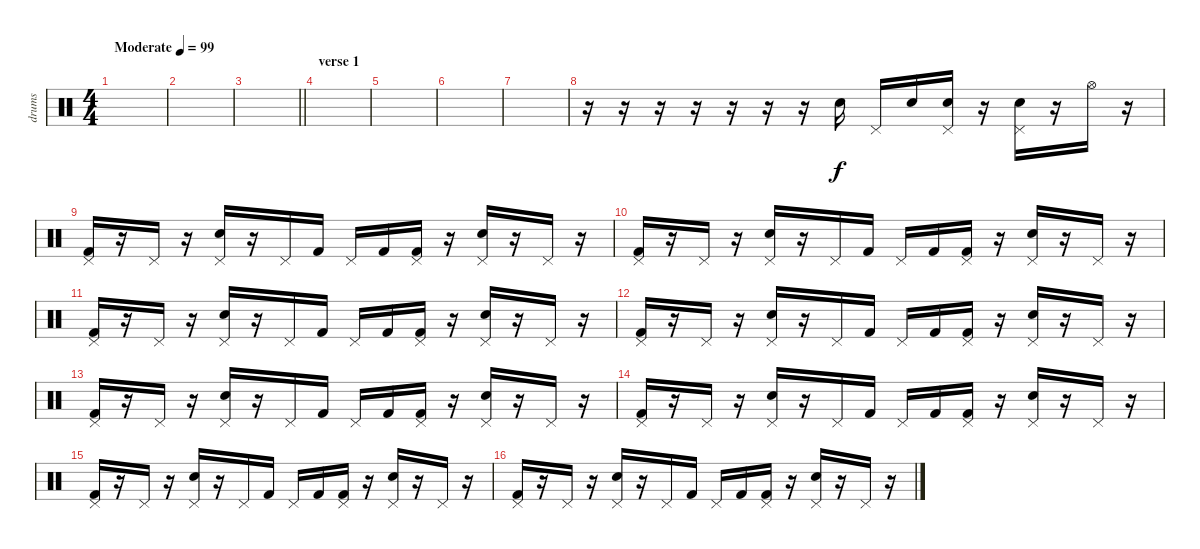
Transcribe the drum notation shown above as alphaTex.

\track ("drums" "drums") {instrument percussion}
\staff {score}
\articulation defaults
\ts (4 4)
\tempo (99 "Moderate")
\clef neutral
\ks c
|
|
\barLineRight lightlight
|
\section ("" "verse 1")
|
|
|
|
r.16 r.16 r.16 r.16 r.16 r.16 r.16 "Snare (hit) 2".16 "Pedal Hi-Hat (hit)".16 "Snare (hit) 2".16 ("Snare (hit) 2" "Pedal Hi-Hat (hit)").16 r.16 ("Snare (hit) 2" "Pedal Hi-Hat (hit)").16 r.16 "Hi-Hat (open)".16 r.16 |
("Kick (hit) 2" "Pedal Hi-Hat (hit)").16 r.16 "Pedal Hi-Hat (hit)".16 r.16 ("Snare (hit) 2" "Pedal Hi-Hat (hit)").16 r.16 "Pedal Hi-Hat (hit)".16 "Kick (hit) 2".16 "Pedal Hi-Hat (hit)".16 "Kick (hit) 2".16 ("Kick (hit) 2" "Pedal Hi-Hat (hit)").16 r.16 ("Snare (hit) 2" "Pedal Hi-Hat (hit)").16 r.16 "Pedal Hi-Hat (hit)".16 r.16 |
("Kick (hit) 2" "Pedal Hi-Hat (hit)").16 r.16 "Pedal Hi-Hat (hit)".16 r.16 ("Snare (hit) 2" "Pedal Hi-Hat (hit)").16 r.16 "Pedal Hi-Hat (hit)".16 "Kick (hit) 2".16 "Pedal Hi-Hat (hit)".16 "Kick (hit) 2".16 ("Kick (hit) 2" "Pedal Hi-Hat (hit)").16 r.16 ("Snare (hit) 2" "Pedal Hi-Hat (hit)").16 r.16 "Pedal Hi-Hat (hit)".16 r.16 |
("Kick (hit) 2" "Pedal Hi-Hat (hit)").16 r.16 "Pedal Hi-Hat (hit)".16 r.16 ("Snare (hit) 2" "Pedal Hi-Hat (hit)").16 r.16 "Pedal Hi-Hat (hit)".16 "Kick (hit) 2".16 "Pedal Hi-Hat (hit)".16 "Kick (hit) 2".16 ("Kick (hit) 2" "Pedal Hi-Hat (hit)").16 r.16 ("Snare (hit) 2" "Pedal Hi-Hat (hit)").16 r.16 "Pedal Hi-Hat (hit)".16 r.16 |
("Kick (hit) 2" "Pedal Hi-Hat (hit)").16 r.16 "Pedal Hi-Hat (hit)".16 r.16 ("Snare (hit) 2" "Pedal Hi-Hat (hit)").16 r.16 "Pedal Hi-Hat (hit)".16 "Kick (hit) 2".16 "Pedal Hi-Hat (hit)".16 "Kick (hit) 2".16 ("Kick (hit) 2" "Pedal Hi-Hat (hit)").16 r.16 ("Snare (hit) 2" "Pedal Hi-Hat (hit)").16 r.16 "Pedal Hi-Hat (hit)".16 r.16 |
("Kick (hit) 2" "Pedal Hi-Hat (hit)").16 r.16 "Pedal Hi-Hat (hit)".16 r.16 ("Snare (hit) 2" "Pedal Hi-Hat (hit)").16 r.16 "Pedal Hi-Hat (hit)".16 "Kick (hit) 2".16 "Pedal Hi-Hat (hit)".16 "Kick (hit) 2".16 ("Kick (hit) 2" "Pedal Hi-Hat (hit)").16 r.16 ("Snare (hit) 2" "Pedal Hi-Hat (hit)").16 r.16 "Pedal Hi-Hat (hit)".16 r.16 |
("Kick (hit) 2" "Pedal Hi-Hat (hit)").16 r.16 "Pedal Hi-Hat (hit)".16 r.16 ("Snare (hit) 2" "Pedal Hi-Hat (hit)").16 r.16 "Pedal Hi-Hat (hit)".16 "Kick (hit) 2".16 "Pedal Hi-Hat (hit)".16 "Kick (hit) 2".16 ("Kick (hit) 2" "Pedal Hi-Hat (hit)").16 r.16 ("Snare (hit) 2" "Pedal Hi-Hat (hit)").16 r.16 "Pedal Hi-Hat (hit)".16 r.16 |
("Kick (hit) 2" "Pedal Hi-Hat (hit)").16 r.16 "Pedal Hi-Hat (hit)".16 r.16 ("Snare (hit) 2" "Pedal Hi-Hat (hit)").16 r.16 "Pedal Hi-Hat (hit)".16 "Kick (hit) 2".16 "Pedal Hi-Hat (hit)".16 "Kick (hit) 2".16 ("Kick (hit) 2" "Pedal Hi-Hat (hit)").16 r.16 ("Snare (hit) 2" "Pedal Hi-Hat (hit)").16 r.16 "Pedal Hi-Hat (hit)".16 r.16 |
("Kick (hit) 2" "Pedal Hi-Hat (hit)").16 r.16 "Pedal Hi-Hat (hit)".16 r.16 ("Snare (hit) 2" "Pedal Hi-Hat (hit)").16 r.16 "Pedal Hi-Hat (hit)".16 "Kick (hit) 2".16 "Pedal Hi-Hat (hit)".16 "Kick (hit) 2".16 ("Kick (hit) 2" "Pedal Hi-Hat (hit)").16 r.16 ("Snare (hit) 2" "Pedal Hi-Hat (hit)").16 r.16 "Pedal Hi-Hat (hit)".16 r.16
